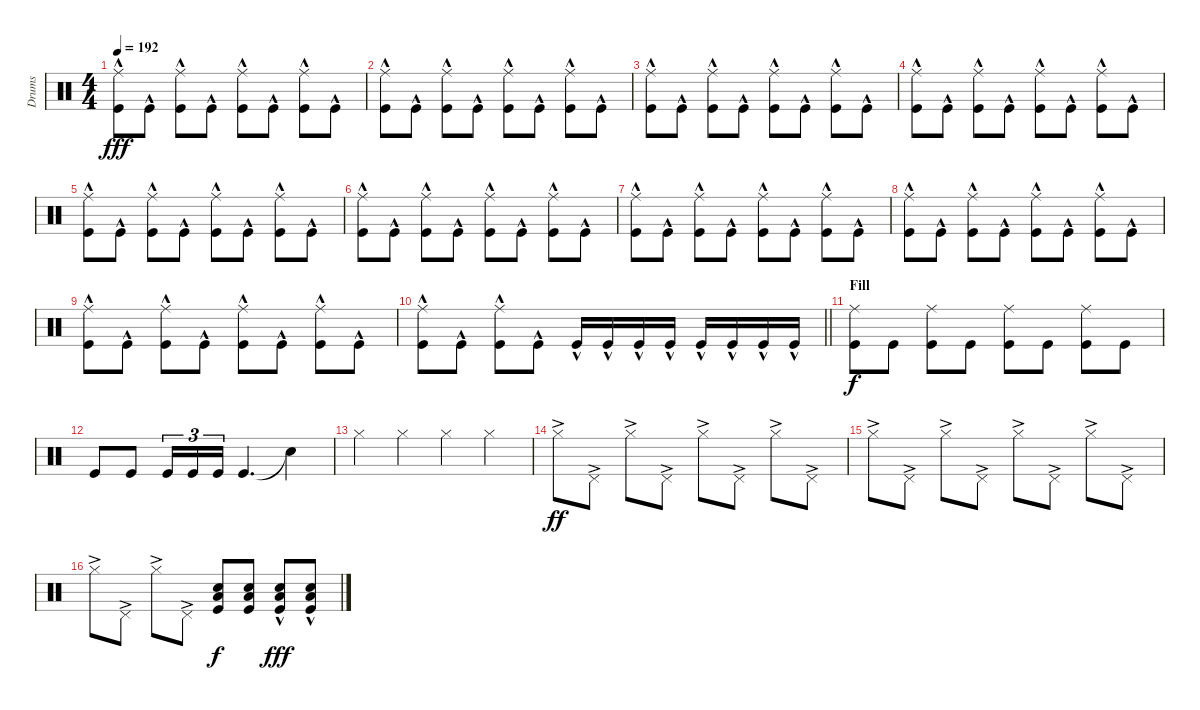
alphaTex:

\track ("Drums" "Drums") {instrument percussion}
\staff {score}
\articulation defaults
\ts (4 4)
\tempo 192
\clef neutral
\ks c
("Ride (middle)"{hac} "Kick (hit)"{hac}).8{dy fff} "Kick (hit)"{hac}.8 ("Ride (middle)"{hac} "Kick (hit)"{hac}).8 "Kick (hit)"{hac}.8 ("Ride (middle)"{hac} "Kick (hit)"{hac}).8 "Kick (hit)"{hac}.8 ("Ride (middle)"{hac} "Kick (hit)"{hac}).8 "Kick (hit)"{hac}.8 |
("Ride (middle)"{hac} "Kick (hit)"{hac}).8 "Kick (hit)"{hac}.8 ("Ride (middle)"{hac} "Kick (hit)"{hac}).8 "Kick (hit)"{hac}.8 ("Ride (middle)"{hac} "Kick (hit)"{hac}).8 "Kick (hit)"{hac}.8 ("Ride (middle)"{hac} "Kick (hit)"{hac}).8 "Kick (hit)"{hac}.8 |
("Ride (middle)"{hac} "Kick (hit)"{hac}).8 "Kick (hit)"{hac}.8 ("Ride (middle)"{hac} "Kick (hit)"{hac}).8 "Kick (hit)"{hac}.8 ("Ride (middle)"{hac} "Kick (hit)"{hac}).8 "Kick (hit)"{hac}.8 ("Ride (middle)"{hac} "Kick (hit)"{hac}).8 "Kick (hit)"{hac}.8 |
("Ride (middle)"{hac} "Kick (hit)"{hac}).8 "Kick (hit)"{hac}.8 ("Ride (middle)"{hac} "Kick (hit)"{hac}).8 "Kick (hit)"{hac}.8 ("Ride (middle)"{hac} "Kick (hit)"{hac}).8 "Kick (hit)"{hac}.8 ("Ride (middle)"{hac} "Kick (hit)"{hac}).8 "Kick (hit)"{hac}.8 |
("Ride (middle)"{hac} "Kick (hit)"{hac}).8 "Kick (hit)"{hac}.8 ("Ride (middle)"{hac} "Kick (hit)"{hac}).8 "Kick (hit)"{hac}.8 ("Ride (middle)"{hac} "Kick (hit)"{hac}).8 "Kick (hit)"{hac}.8 ("Ride (middle)"{hac} "Kick (hit)"{hac}).8 "Kick (hit)"{hac}.8 |
("Ride (middle)"{hac} "Kick (hit)"{hac}).8 "Kick (hit)"{hac}.8 ("Ride (middle)"{hac} "Kick (hit)"{hac}).8 "Kick (hit)"{hac}.8 ("Ride (middle)"{hac} "Kick (hit)"{hac}).8 "Kick (hit)"{hac}.8 ("Ride (middle)"{hac} "Kick (hit)"{hac}).8 "Kick (hit)"{hac}.8 |
("Ride (middle)"{hac} "Kick (hit)"{hac}).8 "Kick (hit)"{hac}.8 ("Ride (middle)"{hac} "Kick (hit)"{hac}).8 "Kick (hit)"{hac}.8 ("Ride (middle)"{hac} "Kick (hit)"{hac}).8 "Kick (hit)"{hac}.8 ("Ride (middle)"{hac} "Kick (hit)"{hac}).8 "Kick (hit)"{hac}.8 |
("Ride (middle)"{hac} "Kick (hit)"{hac}).8 "Kick (hit)"{hac}.8 ("Ride (middle)"{hac} "Kick (hit)"{hac}).8 "Kick (hit)"{hac}.8 ("Ride (middle)"{hac} "Kick (hit)"{hac}).8 "Kick (hit)"{hac}.8 ("Ride (middle)"{hac} "Kick (hit)"{hac}).8 "Kick (hit)"{hac}.8 |
("Ride (middle)"{hac} "Kick (hit)"{hac}).8 "Kick (hit)"{hac}.8 ("Ride (middle)"{hac} "Kick (hit)"{hac}).8 "Kick (hit)"{hac}.8 ("Ride (middle)"{hac} "Kick (hit)"{hac}).8 "Kick (hit)"{hac}.8 ("Ride (middle)"{hac} "Kick (hit)"{hac}).8 "Kick (hit)"{hac}.8 |
\barLineRight lightlight
("Ride (middle)"{hac} "Kick (hit)"{hac}).8 "Kick (hit)"{hac}.8 ("Ride (middle)"{hac} "Kick (hit)"{hac}).8 "Kick (hit)"{hac}.8 "Kick (hit)"{hac}.16 "Kick (hit)"{hac}.16 "Kick (hit)"{hac}.16 "Kick (hit)"{hac}.16 "Kick (hit)"{hac}.16 "Kick (hit)"{hac}.16 "Kick (hit)"{hac}.16 "Kick (hit)"{hac}.16 |
\section ("" "Fill")
("Ride (middle)" "Kick (hit)").8{dy f} "Kick (hit)".8 ("Ride (middle)" "Kick (hit)").8 "Kick (hit)".8 ("Ride (middle)" "Kick (hit)").8 "Kick (hit)".8 ("Ride (middle)" "Kick (hit)").8 "Kick (hit)".8 |
"Kick (hit)".8 "Kick (hit)".8 "Kick (hit)".16{tu (3 2)} "Kick (hit)".16{tu (3 2)} "Kick (hit)".16{tu (3 2)} "Kick (hit)".4{d} "Snare (hit)"{t}.4 |
"Hi-Hat (closed)".4 "Hi-Hat (closed)".4 "Hi-Hat (closed)".4 "Hi-Hat (closed)".4 |
"Hi-Hat (closed)"{ac}.8{dy ff} "Pedal Hi-Hat (hit)"{ac}.8 "Hi-Hat (closed)"{ac}.8 "Pedal Hi-Hat (hit)"{ac}.8 "Hi-Hat (closed)"{ac}.8 "Pedal Hi-Hat (hit)"{ac}.8 "Hi-Hat (closed)"{ac}.8 "Pedal Hi-Hat (hit)"{ac}.8 |
"Hi-Hat (closed)"{ac}.8 "Pedal Hi-Hat (hit)"{ac}.8 "Hi-Hat (closed)"{ac}.8 "Pedal Hi-Hat (hit)"{ac}.8 "Hi-Hat (closed)"{ac}.8 "Pedal Hi-Hat (hit)"{ac}.8 "Hi-Hat (closed)"{ac}.8 "Pedal Hi-Hat (hit)"{ac}.8 |
"Hi-Hat (closed)"{ac}.8 "Pedal Hi-Hat (hit)"{ac}.8 "Hi-Hat (closed)"{ac}.8 "Pedal Hi-Hat (hit)"{ac}.8 ("Snare (hit) 2" "Low Floor Tom (hit)" "Kick (hit)").8{dy f} ("Low Floor Tom (hit)" "Snare (hit) 2" "Kick (hit)").8 ("Low Floor Tom (hit)"{hac} "Snare (hit) 2"{hac} "Kick (hit)"{hac}).8{dy fff} ("Low Floor Tom (hit)"{hac} "Snare (hit) 2"{hac} "Kick (hit)"{hac}).8
